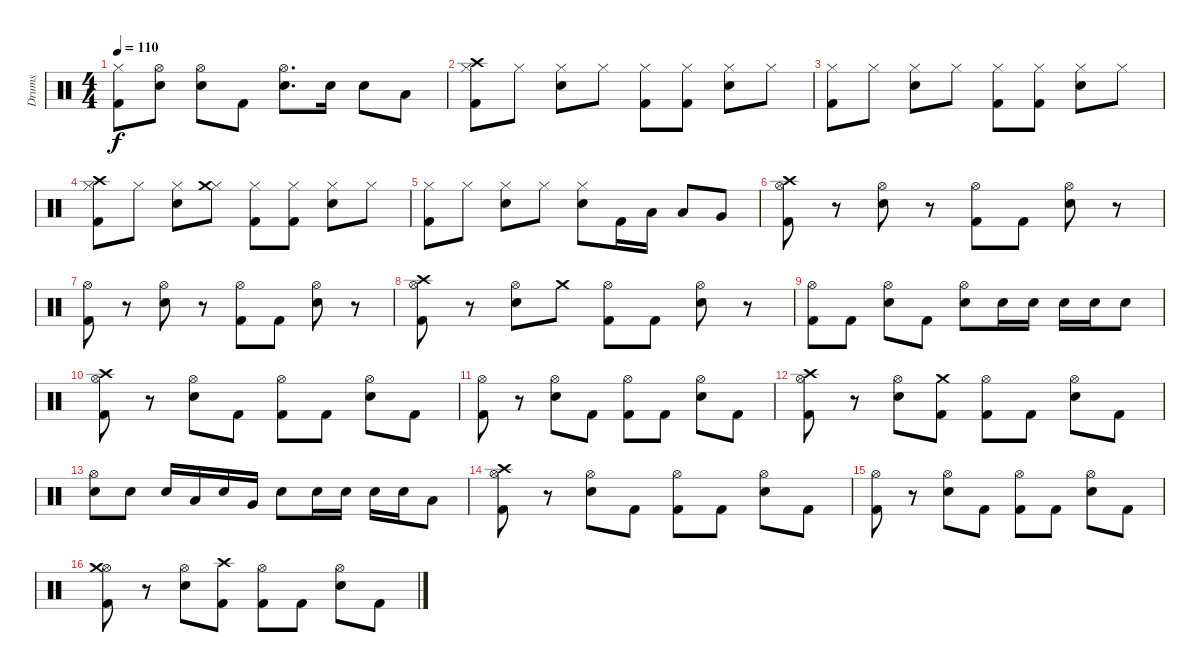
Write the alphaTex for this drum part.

\track ("Drums" "Drums") {instrument percussion}
\staff {score}
\articulation defaults
\ts (4 4)
\tempo 110
\clef neutral
\ks c
("Hi-Hat (closed)" "Kick (hit) 2").8{dy f} ("Hi-Hat (open)" "Snare (hit) 2").8 ("Hi-Hat (open)" "Snare (hit) 2").8 "Kick (hit) 2".8 ("Hi-Hat (open)" "Snare (hit) 2").8{d} "Snare (hit) 2".16 "Snare (hit) 2".8 "Low Tom (hit)".8 |
("Hi-Hat (closed)" "Kick (hit) 2" "Crash high (hit)").8 "Hi-Hat (closed)".8 ("Hi-Hat (closed)" "Snare (hit) 2").8 "Hi-Hat (closed)".8 ("Hi-Hat (closed)" "Kick (hit) 2").8 ("Hi-Hat (closed)" "Kick (hit) 2").8 ("Hi-Hat (closed)" "Snare (hit) 2").8 "Hi-Hat (closed)".8 |
("Hi-Hat (closed)" "Kick (hit) 2").8 "Hi-Hat (closed)".8 ("Hi-Hat (closed)" "Snare (hit) 2").8 "Hi-Hat (closed)".8 ("Hi-Hat (closed)" "Kick (hit) 2").8 ("Hi-Hat (closed)" "Kick (hit) 2").8 ("Hi-Hat (closed)" "Snare (hit) 2").8 "Hi-Hat (closed)".8 |
("Hi-Hat (closed)" "Kick (hit) 2" "Crash high (hit)").8 "Hi-Hat (closed)".8 ("Hi-Hat (closed)" "Snare (hit) 2").8 ("Hi-Hat (closed)" "Crash medium (hit)").8 ("Hi-Hat (closed)" "Kick (hit) 2").8 ("Hi-Hat (closed)" "Kick (hit) 2").8 ("Hi-Hat (closed)" "Snare (hit) 2").8 "Hi-Hat (closed)".8 |
("Hi-Hat (closed)" "Kick (hit) 2").8 "Hi-Hat (closed)".8 ("Hi-Hat (closed)" "Snare (hit) 2").8 "Hi-Hat (closed)".8 ("Hi-Hat (closed)" "Snare (hit) 2").8 "Kick (hit) 2".16 "Low Tom (hit)".16 "Low Tom (hit)".8 "Very Low Tom (hit)".8 |
("Hi-Hat (open)" "Kick (hit) 2" "Crash high (hit)").8 r.8 ("Hi-Hat (open)" "Snare (hit) 2").8 r.8 ("Hi-Hat (open)" "Kick (hit) 2").8 "Kick (hit) 2".8 ("Hi-Hat (open)" "Snare (hit) 2").8 r.8 |
("Hi-Hat (open)" "Kick (hit) 2").8 r.8 ("Hi-Hat (open)" "Snare (hit) 2").8 r.8 ("Hi-Hat (open)" "Kick (hit) 2").8 "Kick (hit) 2".8 ("Hi-Hat (open)" "Snare (hit) 2").8 r.8 |
("Hi-Hat (open)" "Kick (hit) 2" "Crash high (hit)").8 r.8 ("Hi-Hat (open)" "Snare (hit) 2").8 "Crash medium (hit)".8 ("Hi-Hat (open)" "Kick (hit) 2").8 "Kick (hit) 2".8 ("Hi-Hat (open)" "Snare (hit) 2").8 r.8 |
("Hi-Hat (open)" "Kick (hit) 2").8 "Kick (hit) 2".8 ("Hi-Hat (open)" "Snare (hit) 2").8 "Kick (hit) 2".8 ("Hi-Hat (open)" "Snare (hit) 2").8 "Snare (hit) 2".16 "Snare (hit) 2".16 "Snare (hit) 2".16 "Snare (hit) 2".16 "Snare (hit) 2".8 |
("Hi-Hat (open)" "Kick (hit) 2" "Crash high (hit)").8 r.8 ("Hi-Hat (open)" "Snare (hit) 2").8 "Kick (hit) 2".8 ("Hi-Hat (open)" "Kick (hit) 2").8 "Kick (hit) 2".8 ("Hi-Hat (open)" "Snare (hit) 2").8 "Kick (hit) 2".8 |
("Hi-Hat (open)" "Kick (hit) 2").8 r.8 ("Hi-Hat (open)" "Snare (hit) 2").8 "Kick (hit) 2".8 ("Hi-Hat (open)" "Kick (hit) 2").8 "Kick (hit) 2".8 ("Hi-Hat (open)" "Snare (hit) 2").8 "Kick (hit) 2".8 |
("Hi-Hat (open)" "Kick (hit) 2" "Crash high (hit)").8 r.8 ("Hi-Hat (open)" "Snare (hit) 2").8 ("Kick (hit) 2" "Crash medium (hit)").8 ("Hi-Hat (open)" "Kick (hit) 2").8 "Kick (hit) 2".8 ("Hi-Hat (open)" "Snare (hit) 2").8 "Kick (hit) 2".8 |
("Hi-Hat (open)" "Snare (hit) 2").8 "Snare (hit) 2".8 "Snare (hit) 2".16 "Low Tom (hit)".16 "Snare (hit) 2".16 "Very Low Tom (hit)".16 "Snare (hit) 2".8 "Snare (hit) 2".16 "Snare (hit) 2".16 "Snare (hit) 2".16 "Snare (hit) 2".16 "Low Tom (hit)".8 |
("Hi-Hat (open)" "Kick (hit) 2" "Crash high (hit)").8 r.8 ("Hi-Hat (open)" "Snare (hit) 2").8 "Kick (hit) 2".8 ("Hi-Hat (open)" "Kick (hit) 2").8 "Kick (hit) 2".8 ("Hi-Hat (open)" "Snare (hit) 2").8 "Kick (hit) 2".8 |
("Hi-Hat (open)" "Kick (hit) 2").8 r.8 ("Hi-Hat (open)" "Snare (hit) 2").8 "Kick (hit) 2".8 ("Hi-Hat (open)" "Kick (hit) 2").8 "Kick (hit) 2".8 ("Hi-Hat (open)" "Snare (hit) 2").8 "Kick (hit) 2".8 |
("Hi-Hat (open)" "Kick (hit) 2" "Crash medium (hit)").8 r.8 ("Hi-Hat (open)" "Snare (hit) 2").8 ("Kick (hit) 2" "Crash high (hit)").8 ("Hi-Hat (open)" "Kick (hit) 2").8 "Kick (hit) 2".8 ("Hi-Hat (open)" "Snare (hit) 2").8 "Kick (hit) 2".8
